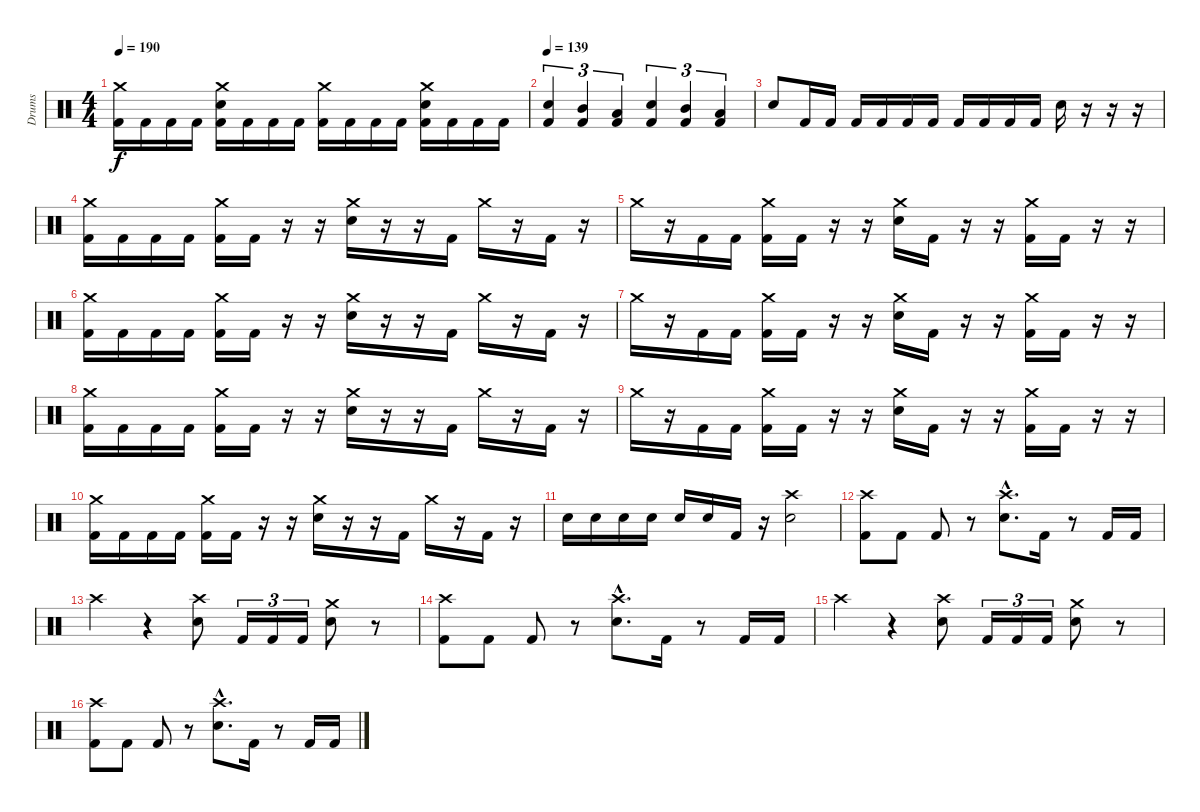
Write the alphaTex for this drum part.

\track ("Drums" "Drums") {instrument percussion}
\staff {score}
\articulation defaults
\ts (4 4)
\tempo 190
\clef neutral
\ks c
("Crash medium (hit)" "Kick (hit) 2").16{dy f} "Kick (hit) 2".16 "Kick (hit) 2".16 "Kick (hit) 2".16 ("Crash medium (hit)" "Electric Snare (hit)" "Kick (hit) 2").16 "Kick (hit) 2".16 "Kick (hit) 2".16 "Kick (hit) 2".16 ("Crash medium (hit)" "Kick (hit) 2").16 "Kick (hit) 2".16 "Kick (hit) 2".16 "Kick (hit) 2".16 ("Crash medium (hit)" "Electric Snare (hit)" "Kick (hit) 2").16 "Kick (hit) 2".16 "Kick (hit) 2".16 "Kick (hit) 2".16 |
\tempo 139
("Electric Snare (hit)" "Kick (hit) 2").4{tu (3 2)} ("Mid Tom (hit)" "Kick (hit) 2").4{tu (3 2)} ("Low Tom (hit)" "Kick (hit) 2").4{tu (3 2)} ("Electric Snare (hit)" "Kick (hit) 2").4{tu (3 2)} ("Mid Tom (hit)" "Kick (hit) 2").4{tu (3 2)} ("Low Tom (hit)" "Kick (hit) 2").4{tu (3 2)} |
"Electric Snare (hit)".8 "Kick (hit) 2".16 "Kick (hit) 2".16 "Kick (hit) 2".16 "Kick (hit) 2".16 "Kick (hit) 2".16 "Kick (hit) 2".16 "Kick (hit) 2".16 "Kick (hit) 2".16 "Kick (hit) 2".16 "Kick (hit) 2".16 "Electric Snare (hit)".16 r.16 r.16 r.16 |
("Crash medium (hit)" "Kick (hit) 2").16 "Kick (hit) 2".16 "Kick (hit) 2".16 "Kick (hit) 2".16 ("Crash medium (hit)" "Kick (hit) 2").16 "Kick (hit) 2".16 r.16 r.16 ("Crash medium (hit)" "Electric Snare (hit)").16 r.16 r.16 "Kick (hit) 2".16 "Crash medium (hit)".16 r.16 "Kick (hit) 2".16 r.16 |
"Crash medium (hit)".16 r.16 "Kick (hit) 2".16 "Kick (hit) 2".16 ("Crash medium (hit)" "Kick (hit) 2").16 "Kick (hit) 2".16 r.16 r.16 ("Crash medium (hit)" "Electric Snare (hit)").16 "Kick (hit) 2".16 r.16 r.16 ("Crash medium (hit)" "Kick (hit) 2").16 "Kick (hit) 2".16 r.16 r.16 |
("Crash medium (hit)" "Kick (hit) 2").16 "Kick (hit) 2".16 "Kick (hit) 2".16 "Kick (hit) 2".16 ("Crash medium (hit)" "Kick (hit) 2").16 "Kick (hit) 2".16 r.16 r.16 ("Crash medium (hit)" "Electric Snare (hit)").16 r.16 r.16 "Kick (hit) 2".16 "Crash medium (hit)".16 r.16 "Kick (hit) 2".16 r.16 |
"Crash medium (hit)".16 r.16 "Kick (hit) 2".16 "Kick (hit) 2".16 ("Crash medium (hit)" "Kick (hit) 2").16 "Kick (hit) 2".16 r.16 r.16 ("Crash medium (hit)" "Electric Snare (hit)").16 "Kick (hit) 2".16 r.16 r.16 ("Crash medium (hit)" "Kick (hit) 2").16 "Kick (hit) 2".16 r.16 r.16 |
("Crash medium (hit)" "Kick (hit) 2").16 "Kick (hit) 2".16 "Kick (hit) 2".16 "Kick (hit) 2".16 ("Crash medium (hit)" "Kick (hit) 2").16 "Kick (hit) 2".16 r.16 r.16 ("Crash medium (hit)" "Electric Snare (hit)").16 r.16 r.16 "Kick (hit) 2".16 "Crash medium (hit)".16 r.16 "Kick (hit) 2".16 r.16 |
"Crash medium (hit)".16 r.16 "Kick (hit) 2".16 "Kick (hit) 2".16 ("Crash medium (hit)" "Kick (hit) 2").16 "Kick (hit) 2".16 r.16 r.16 ("Crash medium (hit)" "Electric Snare (hit)").16 "Kick (hit) 2".16 r.16 r.16 ("Crash medium (hit)" "Kick (hit) 2").16 "Kick (hit) 2".16 r.16 r.16 |
("Crash medium (hit)" "Kick (hit) 2").16 "Kick (hit) 2".16 "Kick (hit) 2".16 "Kick (hit) 2".16 ("Crash medium (hit)" "Kick (hit) 2").16 "Kick (hit) 2".16 r.16 r.16 ("Crash medium (hit)" "Electric Snare (hit)").16 r.16 r.16 "Kick (hit) 2".16 "Crash medium (hit)".16 r.16 "Kick (hit) 2".16 r.16 |
"Electric Snare (hit)".16 "Electric Snare (hit)".16 "Electric Snare (hit)".16 "Electric Snare (hit)".16 "Electric Snare (hit)".16 "Electric Snare (hit)".16 "Kick (hit) 2".16 r.16 ("Crash high (hit)" "Electric Snare (hit)").2 |
("Crash high (hit)" "Kick (hit) 2").8 "Kick (hit) 2".8 "Kick (hit) 2".8 r.8 ("Crash high (hit)"{hac} "Electric Snare (hit)"{hac}).8{d} "Kick (hit) 2".16 r.8 "Kick (hit) 2".16 "Kick (hit) 2".16 |
"Crash high (hit)".4 r.4 ("Crash high (hit)" "Electric Snare (hit)").8 "Kick (hit) 2".16{tu (3 2)} "Kick (hit) 2".16{tu (3 2)} "Kick (hit) 2".16{tu (3 2)} ("Crash medium (hit)" "Electric Snare (hit)").8 r.8 |
("Crash high (hit)" "Kick (hit) 2").8 "Kick (hit) 2".8 "Kick (hit) 2".8 r.8 ("Crash high (hit)"{hac} "Electric Snare (hit)"{hac}).8{d} "Kick (hit) 2".16 r.8 "Kick (hit) 2".16 "Kick (hit) 2".16 |
"Crash high (hit)".4 r.4 ("Crash high (hit)" "Electric Snare (hit)").8 "Kick (hit) 2".16{tu (3 2)} "Kick (hit) 2".16{tu (3 2)} "Kick (hit) 2".16{tu (3 2)} ("Crash medium (hit)" "Electric Snare (hit)").8 r.8 |
("Crash high (hit)" "Kick (hit) 2").8 "Kick (hit) 2".8 "Kick (hit) 2".8 r.8 ("Crash high (hit)"{hac} "Electric Snare (hit)"{hac}).8{d} "Kick (hit) 2".16 r.8 "Kick (hit) 2".16 "Kick (hit) 2".16
